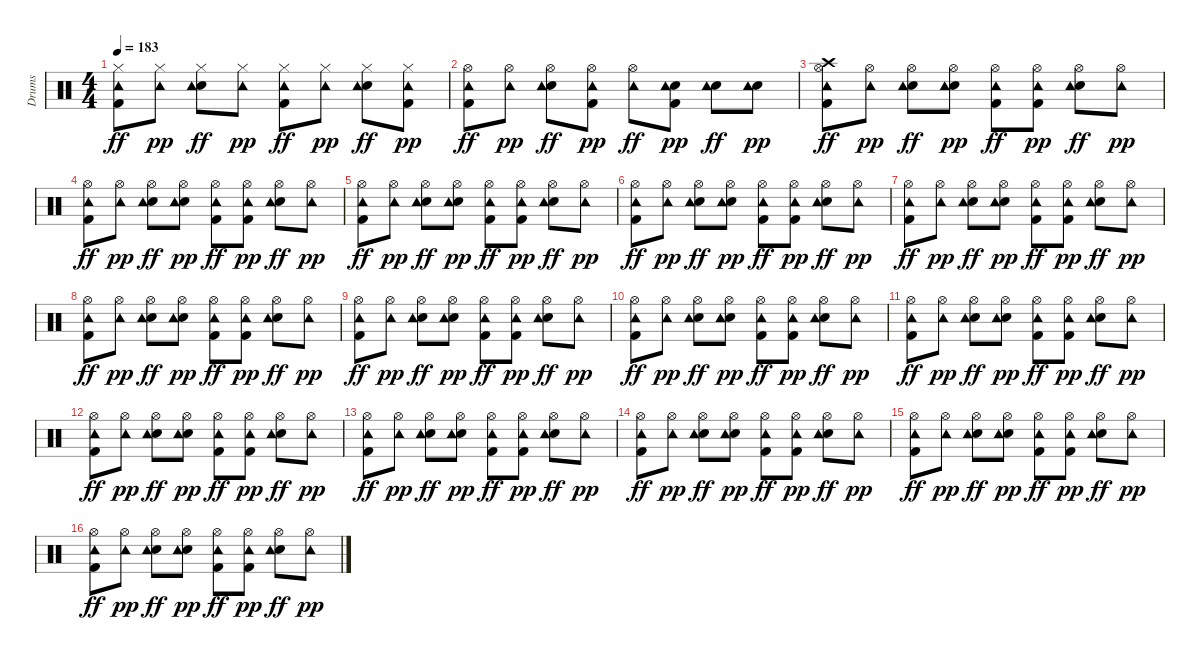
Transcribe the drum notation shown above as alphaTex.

\track ("Drums" "Drums") {instrument percussion}
\staff {score}
\articulation defaults
\ts (4 4)
\tempo 183
\clef neutral
\ks c
("Kick (hit) 2" "Hi-Hat (closed)" "Tambourine (hit)").8{dy ff} ("Hi-Hat (closed)" "Tambourine (hit)").8{dy pp} ("Snare (hit) 2" "Hi-Hat (closed)" "Tambourine (hit)").8{dy ff} ("Hi-Hat (closed)" "Tambourine (hit)").8{dy pp} ("Kick (hit) 2" "Hi-Hat (closed)" "Tambourine (hit)").8{dy ff} ("Hi-Hat (closed)" "Tambourine (hit)").8{dy pp} ("Snare (hit) 2" "Hi-Hat (closed)" "Tambourine (hit)").8{dy ff} ("Kick (hit) 2" "Hi-Hat (closed)" "Tambourine (hit)").8{dy pp} |
("Kick (hit) 2" "Hi-Hat (open)" "Tambourine (hit)").8{dy ff} ("Hi-Hat (open)" "Tambourine (hit)").8{dy pp} ("Snare (hit) 2" "Hi-Hat (open)" "Tambourine (hit)").8{dy ff} ("Kick (hit) 2" "Hi-Hat (open)" "Tambourine (hit)").8{dy pp} ("Hi-Hat (open)" "Tambourine (hit)").8{dy ff} ("Kick (hit) 2" "Snare (hit) 2" "Tambourine (hit)").8{dy pp} ("Snare (hit) 2" "Tambourine (hit)").8{dy ff} ("Snare (hit) 2" "Tambourine (hit)").8{dy pp} |
("Kick (hit) 2" "Hi-Hat (open)" "Crash high (hit)" "Tambourine (hit)").8{dy ff} ("Hi-Hat (open)" "Tambourine (hit)").8{dy pp} ("Snare (hit) 2" "Hi-Hat (open)" "Tambourine (hit)").8{dy ff} ("Snare (hit) 2" "Hi-Hat (open)" "Tambourine (hit)").8{dy pp} ("Kick (hit) 2" "Hi-Hat (open)" "Tambourine (hit)").8{dy ff} ("Kick (hit) 2" "Hi-Hat (open)" "Tambourine (hit)").8{dy pp} ("Snare (hit) 2" "Hi-Hat (open)" "Tambourine (hit)").8{dy ff} ("Hi-Hat (open)" "Tambourine (hit)").8{dy pp} |
("Kick (hit) 2" "Hi-Hat (open)" "Tambourine (hit)").8{dy ff} ("Hi-Hat (open)" "Tambourine (hit)").8{dy pp} ("Snare (hit) 2" "Hi-Hat (open)" "Tambourine (hit)").8{dy ff} ("Snare (hit) 2" "Hi-Hat (open)" "Tambourine (hit)").8{dy pp} ("Kick (hit) 2" "Hi-Hat (open)" "Tambourine (hit)").8{dy ff} ("Kick (hit) 2" "Hi-Hat (open)" "Tambourine (hit)").8{dy pp} ("Snare (hit) 2" "Hi-Hat (open)" "Tambourine (hit)").8{dy ff} ("Hi-Hat (open)" "Tambourine (hit)").8{dy pp} |
("Kick (hit) 2" "Hi-Hat (open)" "Tambourine (hit)").8{dy ff} ("Hi-Hat (open)" "Tambourine (hit)").8{dy pp} ("Snare (hit) 2" "Hi-Hat (open)" "Tambourine (hit)").8{dy ff} ("Snare (hit) 2" "Hi-Hat (open)" "Tambourine (hit)").8{dy pp} ("Kick (hit) 2" "Hi-Hat (open)" "Tambourine (hit)").8{dy ff} ("Kick (hit) 2" "Hi-Hat (open)" "Tambourine (hit)").8{dy pp} ("Snare (hit) 2" "Hi-Hat (open)" "Tambourine (hit)").8{dy ff} ("Hi-Hat (open)" "Tambourine (hit)").8{dy pp} |
("Kick (hit) 2" "Hi-Hat (open)" "Tambourine (hit)").8{dy ff} ("Hi-Hat (open)" "Tambourine (hit)").8{dy pp} ("Snare (hit) 2" "Hi-Hat (open)" "Tambourine (hit)").8{dy ff} ("Snare (hit) 2" "Hi-Hat (open)" "Tambourine (hit)").8{dy pp} ("Kick (hit) 2" "Hi-Hat (open)" "Tambourine (hit)").8{dy ff} ("Kick (hit) 2" "Hi-Hat (open)" "Tambourine (hit)").8{dy pp} ("Snare (hit) 2" "Hi-Hat (open)" "Tambourine (hit)").8{dy ff} ("Hi-Hat (open)" "Tambourine (hit)").8{dy pp} |
("Kick (hit) 2" "Hi-Hat (open)" "Tambourine (hit)").8{dy ff} ("Hi-Hat (open)" "Tambourine (hit)").8{dy pp} ("Snare (hit) 2" "Hi-Hat (open)" "Tambourine (hit)").8{dy ff} ("Snare (hit) 2" "Hi-Hat (open)" "Tambourine (hit)").8{dy pp} ("Kick (hit) 2" "Hi-Hat (open)" "Tambourine (hit)").8{dy ff} ("Kick (hit) 2" "Hi-Hat (open)" "Tambourine (hit)").8{dy pp} ("Snare (hit) 2" "Hi-Hat (open)" "Tambourine (hit)").8{dy ff} ("Hi-Hat (open)" "Tambourine (hit)").8{dy pp} |
("Kick (hit) 2" "Hi-Hat (open)" "Tambourine (hit)").8{dy ff} ("Hi-Hat (open)" "Tambourine (hit)").8{dy pp} ("Snare (hit) 2" "Hi-Hat (open)" "Tambourine (hit)").8{dy ff} ("Snare (hit) 2" "Hi-Hat (open)" "Tambourine (hit)").8{dy pp} ("Kick (hit) 2" "Hi-Hat (open)" "Tambourine (hit)").8{dy ff} ("Kick (hit) 2" "Hi-Hat (open)" "Tambourine (hit)").8{dy pp} ("Snare (hit) 2" "Hi-Hat (open)" "Tambourine (hit)").8{dy ff} ("Hi-Hat (open)" "Tambourine (hit)").8{dy pp} |
("Kick (hit) 2" "Hi-Hat (open)" "Tambourine (hit)").8{dy ff} ("Hi-Hat (open)" "Tambourine (hit)").8{dy pp} ("Snare (hit) 2" "Hi-Hat (open)" "Tambourine (hit)").8{dy ff} ("Snare (hit) 2" "Hi-Hat (open)" "Tambourine (hit)").8{dy pp} ("Kick (hit) 2" "Hi-Hat (open)" "Tambourine (hit)").8{dy ff} ("Kick (hit) 2" "Hi-Hat (open)" "Tambourine (hit)").8{dy pp} ("Snare (hit) 2" "Hi-Hat (open)" "Tambourine (hit)").8{dy ff} ("Hi-Hat (open)" "Tambourine (hit)").8{dy pp} |
("Kick (hit) 2" "Hi-Hat (open)" "Tambourine (hit)").8{dy ff} ("Hi-Hat (open)" "Tambourine (hit)").8{dy pp} ("Snare (hit) 2" "Hi-Hat (open)" "Tambourine (hit)").8{dy ff} ("Snare (hit) 2" "Hi-Hat (open)" "Tambourine (hit)").8{dy pp} ("Kick (hit) 2" "Hi-Hat (open)" "Tambourine (hit)").8{dy ff} ("Kick (hit) 2" "Hi-Hat (open)" "Tambourine (hit)").8{dy pp} ("Snare (hit) 2" "Hi-Hat (open)" "Tambourine (hit)").8{dy ff} ("Hi-Hat (open)" "Tambourine (hit)").8{dy pp} |
("Kick (hit) 2" "Hi-Hat (open)" "Tambourine (hit)").8{dy ff} ("Hi-Hat (open)" "Tambourine (hit)").8{dy pp} ("Snare (hit) 2" "Hi-Hat (open)" "Tambourine (hit)").8{dy ff} ("Snare (hit) 2" "Hi-Hat (open)" "Tambourine (hit)").8{dy pp} ("Kick (hit) 2" "Hi-Hat (open)" "Tambourine (hit)").8{dy ff} ("Kick (hit) 2" "Hi-Hat (open)" "Tambourine (hit)").8{dy pp} ("Snare (hit) 2" "Hi-Hat (open)" "Tambourine (hit)").8{dy ff} ("Hi-Hat (open)" "Tambourine (hit)").8{dy pp} |
("Kick (hit) 2" "Hi-Hat (open)" "Tambourine (hit)").8{dy ff} ("Hi-Hat (open)" "Tambourine (hit)").8{dy pp} ("Snare (hit) 2" "Hi-Hat (open)" "Tambourine (hit)").8{dy ff} ("Snare (hit) 2" "Hi-Hat (open)" "Tambourine (hit)").8{dy pp} ("Kick (hit) 2" "Hi-Hat (open)" "Tambourine (hit)").8{dy ff} ("Kick (hit) 2" "Hi-Hat (open)" "Tambourine (hit)").8{dy pp} ("Snare (hit) 2" "Hi-Hat (open)" "Tambourine (hit)").8{dy ff} ("Hi-Hat (open)" "Tambourine (hit)").8{dy pp} |
("Kick (hit) 2" "Hi-Hat (open)" "Tambourine (hit)").8{dy ff} ("Hi-Hat (open)" "Tambourine (hit)").8{dy pp} ("Snare (hit) 2" "Hi-Hat (open)" "Tambourine (hit)").8{dy ff} ("Snare (hit) 2" "Hi-Hat (open)" "Tambourine (hit)").8{dy pp} ("Kick (hit) 2" "Hi-Hat (open)" "Tambourine (hit)").8{dy ff} ("Kick (hit) 2" "Hi-Hat (open)" "Tambourine (hit)").8{dy pp} ("Snare (hit) 2" "Hi-Hat (open)" "Tambourine (hit)").8{dy ff} ("Hi-Hat (open)" "Tambourine (hit)").8{dy pp} |
("Kick (hit) 2" "Hi-Hat (open)" "Tambourine (hit)").8{dy ff} ("Hi-Hat (open)" "Tambourine (hit)").8{dy pp} ("Snare (hit) 2" "Hi-Hat (open)" "Tambourine (hit)").8{dy ff} ("Snare (hit) 2" "Hi-Hat (open)" "Tambourine (hit)").8{dy pp} ("Kick (hit) 2" "Hi-Hat (open)" "Tambourine (hit)").8{dy ff} ("Kick (hit) 2" "Hi-Hat (open)" "Tambourine (hit)").8{dy pp} ("Snare (hit) 2" "Hi-Hat (open)" "Tambourine (hit)").8{dy ff} ("Hi-Hat (open)" "Tambourine (hit)").8{dy pp} |
("Kick (hit) 2" "Hi-Hat (open)" "Tambourine (hit)").8{dy ff} ("Hi-Hat (open)" "Tambourine (hit)").8{dy pp} ("Snare (hit) 2" "Hi-Hat (open)" "Tambourine (hit)").8{dy ff} ("Snare (hit) 2" "Hi-Hat (open)" "Tambourine (hit)").8{dy pp} ("Kick (hit) 2" "Hi-Hat (open)" "Tambourine (hit)").8{dy ff} ("Kick (hit) 2" "Hi-Hat (open)" "Tambourine (hit)").8{dy pp} ("Snare (hit) 2" "Hi-Hat (open)" "Tambourine (hit)").8{dy ff} ("Hi-Hat (open)" "Tambourine (hit)").8{dy pp} |
("Kick (hit) 2" "Hi-Hat (open)" "Tambourine (hit)").8{dy ff} ("Hi-Hat (open)" "Tambourine (hit)").8{dy pp} ("Snare (hit) 2" "Hi-Hat (open)" "Tambourine (hit)").8{dy ff} ("Snare (hit) 2" "Hi-Hat (open)" "Tambourine (hit)").8{dy pp} ("Kick (hit) 2" "Hi-Hat (open)" "Tambourine (hit)").8{dy ff} ("Kick (hit) 2" "Hi-Hat (open)" "Tambourine (hit)").8{dy pp} ("Snare (hit) 2" "Hi-Hat (open)" "Tambourine (hit)").8{dy ff} ("Hi-Hat (open)" "Tambourine (hit)").8{dy pp}
